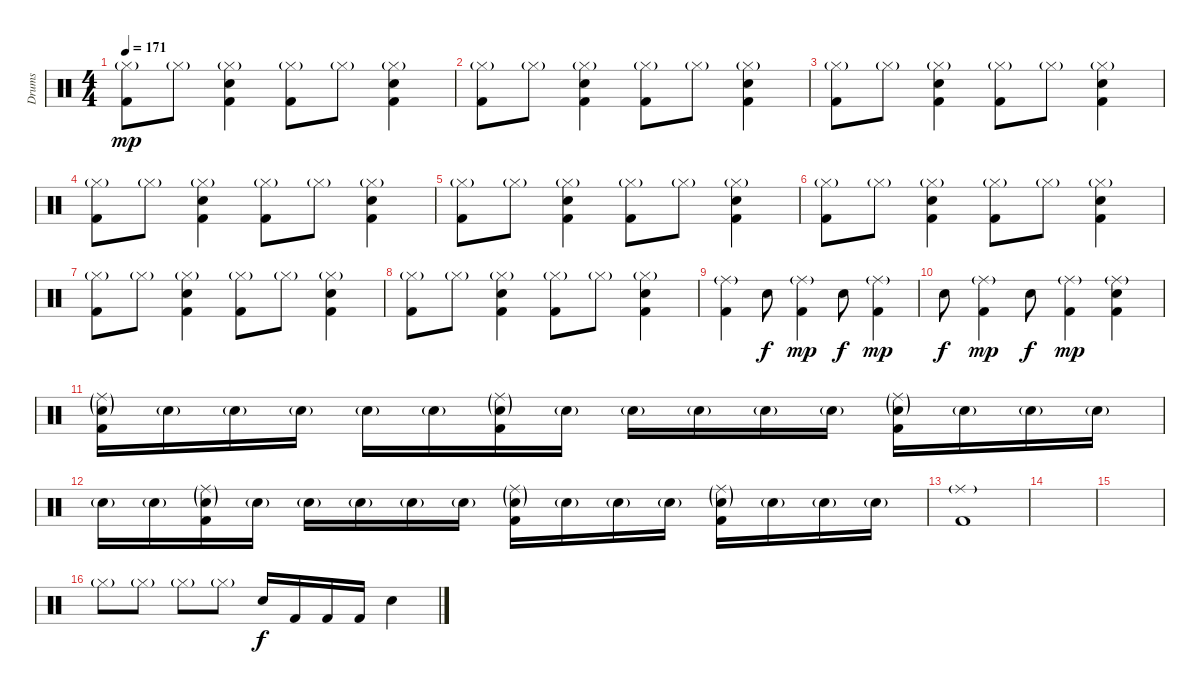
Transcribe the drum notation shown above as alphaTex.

\track ("Drums" "Drums") {instrument percussion}
\staff {score}
\articulation defaults
\ts (4 4)
\tempo 171
\clef neutral
\ks c
("Hi-Hat (closed)"{g} "Kick (hit) 2").8{dy mp} "Hi-Hat (closed)"{g}.8 ("Hi-Hat (closed)"{g} "Electric Snare (hit)" "Kick (hit) 2").4 ("Hi-Hat (closed)"{g} "Kick (hit) 2").8 "Hi-Hat (closed)"{g}.8 ("Hi-Hat (closed)"{g} "Electric Snare (hit)" "Kick (hit) 2").4 |
("Hi-Hat (closed)"{g} "Kick (hit) 2").8 "Hi-Hat (closed)"{g}.8 ("Hi-Hat (closed)"{g} "Electric Snare (hit)" "Kick (hit) 2").4 ("Hi-Hat (closed)"{g} "Kick (hit) 2").8 "Hi-Hat (closed)"{g}.8 ("Hi-Hat (closed)"{g} "Electric Snare (hit)" "Kick (hit) 2").4 |
("Hi-Hat (closed)"{g} "Kick (hit) 2").8 "Hi-Hat (closed)"{g}.8 ("Hi-Hat (closed)"{g} "Electric Snare (hit)" "Kick (hit) 2").4 ("Hi-Hat (closed)"{g} "Kick (hit) 2").8 "Hi-Hat (closed)"{g}.8 ("Hi-Hat (closed)"{g} "Electric Snare (hit)" "Kick (hit) 2").4 |
("Hi-Hat (closed)"{g} "Kick (hit) 2").8 "Hi-Hat (closed)"{g}.8 ("Hi-Hat (closed)"{g} "Electric Snare (hit)" "Kick (hit) 2").4 ("Hi-Hat (closed)"{g} "Kick (hit) 2").8 "Hi-Hat (closed)"{g}.8 ("Hi-Hat (closed)"{g} "Electric Snare (hit)" "Kick (hit) 2").4 |
("Hi-Hat (closed)"{g} "Kick (hit) 2").8 "Hi-Hat (closed)"{g}.8 ("Hi-Hat (closed)"{g} "Electric Snare (hit)" "Kick (hit) 2").4 ("Hi-Hat (closed)"{g} "Kick (hit) 2").8 "Hi-Hat (closed)"{g}.8 ("Hi-Hat (closed)"{g} "Electric Snare (hit)" "Kick (hit) 2").4 |
("Hi-Hat (closed)"{g} "Kick (hit) 2").8 "Hi-Hat (closed)"{g}.8 ("Hi-Hat (closed)"{g} "Electric Snare (hit)" "Kick (hit) 2").4 ("Hi-Hat (closed)"{g} "Kick (hit) 2").8 "Hi-Hat (closed)"{g}.8 ("Hi-Hat (closed)"{g} "Electric Snare (hit)" "Kick (hit) 2").4 |
("Hi-Hat (closed)"{g} "Kick (hit) 2").8 "Hi-Hat (closed)"{g}.8 ("Hi-Hat (closed)"{g} "Electric Snare (hit)" "Kick (hit) 2").4 ("Hi-Hat (closed)"{g} "Kick (hit) 2").8 "Hi-Hat (closed)"{g}.8 ("Hi-Hat (closed)"{g} "Electric Snare (hit)" "Kick (hit) 2").4 |
("Hi-Hat (closed)"{g} "Kick (hit) 2").8 "Hi-Hat (closed)"{g}.8 ("Hi-Hat (closed)"{g} "Electric Snare (hit)" "Kick (hit) 2").4 ("Hi-Hat (closed)"{g} "Kick (hit) 2").8 "Hi-Hat (closed)"{g}.8 ("Hi-Hat (closed)"{g} "Electric Snare (hit)" "Kick (hit) 2").4 |
("Ride (middle)"{g} "Kick (hit) 2").4 "Electric Snare (hit)".8{dy f} ("Ride (middle)"{g} "Kick (hit) 2").4{dy mp} "Electric Snare (hit)".8{dy f} ("Ride (middle)"{g} "Kick (hit) 2").4{dy mp} |
"Electric Snare (hit)".8{dy f} ("Ride (middle)"{g} "Kick (hit) 2").4{dy mp} "Electric Snare (hit)".8{dy f} ("Ride (middle)"{g} "Kick (hit) 2").4{dy mp} ("Ride (middle)"{g} "Electric Snare (hit)" "Kick (hit) 2").4 |
("Ride (middle)"{g} "Electric Snare (hit)"{g} "Kick (hit) 2").16 "Electric Snare (hit)"{g}.16 "Electric Snare (hit)"{g}.16 "Electric Snare (hit)"{g}.16 "Electric Snare (hit)"{g}.16 "Electric Snare (hit)"{g}.16 ("Ride (middle)"{g} "Electric Snare (hit)"{g} "Kick (hit) 2").16 "Electric Snare (hit)"{g}.16 "Electric Snare (hit)"{g}.16 "Electric Snare (hit)"{g}.16 "Electric Snare (hit)"{g}.16 "Electric Snare (hit)"{g}.16 ("Ride (middle)"{g} "Electric Snare (hit)"{g} "Kick (hit) 2").16 "Electric Snare (hit)"{g}.16 "Electric Snare (hit)"{g}.16 "Electric Snare (hit)"{g}.16 |
"Electric Snare (hit)"{g}.16 "Electric Snare (hit)"{g}.16 ("Ride (middle)"{g} "Electric Snare (hit)"{g} "Kick (hit) 2").16 "Electric Snare (hit)"{g}.16 "Electric Snare (hit)"{g}.16 "Electric Snare (hit)"{g}.16 "Electric Snare (hit)"{g}.16 "Electric Snare (hit)"{g}.16 ("Ride (middle)"{g} "Electric Snare (hit)"{g} "Kick (hit) 2").16 "Electric Snare (hit)"{g}.16 "Electric Snare (hit)"{g}.16 "Electric Snare (hit)"{g}.16 ("Ride (middle)"{g} "Electric Snare (hit)"{g} "Kick (hit) 2").16 "Electric Snare (hit)"{g}.16 "Electric Snare (hit)"{g}.16 "Electric Snare (hit)"{g}.16 |
("Ride (middle)"{g} "Kick (hit) 2").1 |
|
|
"Hi-Hat (closed)"{g}.8 "Hi-Hat (closed)"{g}.8 "Hi-Hat (closed)"{g}.8 "Hi-Hat (closed)"{g}.8 "Electric Snare (hit)".16{dy f} "Kick (hit) 2".16 "Kick (hit) 2".16 "Kick (hit) 2".16 "Electric Snare (hit)".4
